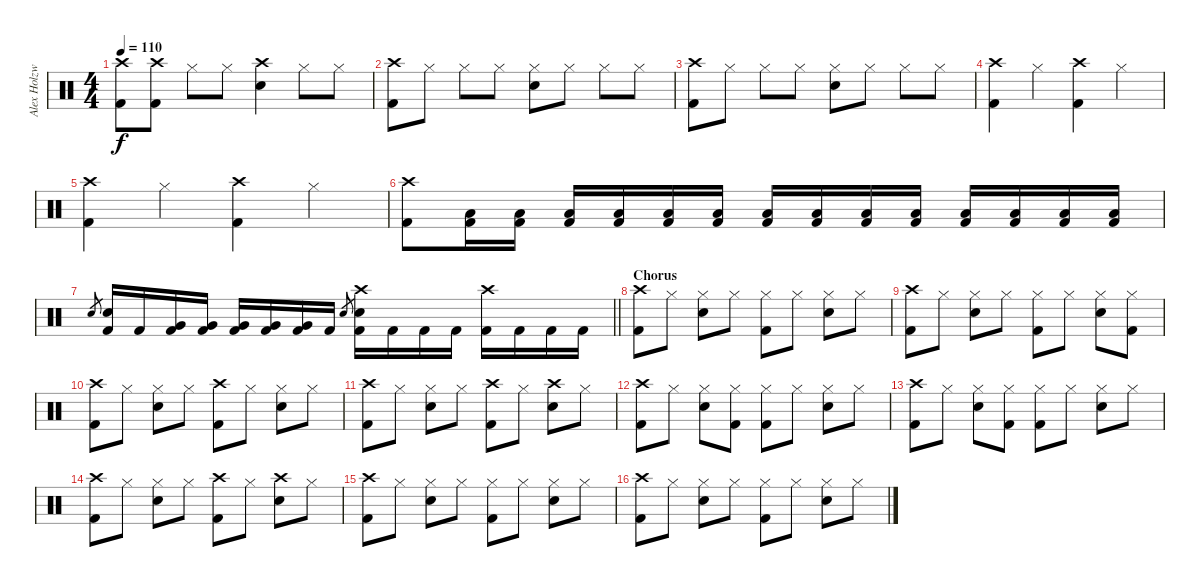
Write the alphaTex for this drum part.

\track ("Alex Holzwarth (Drums)" "Alex Holzw") {instrument percussion}
\staff {score}
\articulation defaults
\ts (4 4)
\tempo 110
\clef neutral
\ks c
("Crash high (hit)" "Kick (hit) 2").8{dy f} ("Crash high (hit)" "Kick (hit) 2").8 "Hi-Hat (closed)".8 "Hi-Hat (closed)".8 ("Crash high (hit)" "Electric Snare (hit)").4 "Hi-Hat (closed)".8 "Hi-Hat (closed)".8 |
("Crash high (hit)" "Kick (hit) 2").8 "Hi-Hat (closed)".8 "Hi-Hat (closed)".8 "Hi-Hat (closed)".8 ("Hi-Hat (closed)" "Electric Snare (hit)").8 "Hi-Hat (closed)".8 "Hi-Hat (closed)".8 "Hi-Hat (closed)".8 |
("Crash high (hit)" "Kick (hit) 2").8 "Hi-Hat (closed)".8 "Hi-Hat (closed)".8 "Hi-Hat (closed)".8 ("Hi-Hat (closed)" "Electric Snare (hit)").8 "Hi-Hat (closed)".8 "Hi-Hat (closed)".8 "Hi-Hat (closed)".8 |
("Crash high (hit)" "Kick (hit) 2").4 "Hi-Hat (closed)".4 ("Crash high (hit)" "Kick (hit) 2").4 "Hi-Hat (closed)".4 |
("Crash high (hit)" "Kick (hit) 2").4 "Hi-Hat (closed)".4 ("Crash high (hit)" "Kick (hit) 2").4 "Hi-Hat (closed)".4 |
("Crash high (hit)" "Kick (hit) 2").8 ("Low Tom (hit)" "Kick (hit) 2").16 ("Low Tom (hit)" "Kick (hit) 2").16 ("Low Tom (hit)" "Kick (hit) 2").16 ("Low Tom (hit)" "Kick (hit) 2").16 ("Low Tom (hit)" "Kick (hit) 2").16 ("Low Tom (hit)" "Kick (hit) 2").16 ("Low Tom (hit)" "Kick (hit) 2").16 ("Low Tom (hit)" "Kick (hit) 2").16 ("Low Tom (hit)" "Kick (hit) 2").16 ("Low Tom (hit)" "Kick (hit) 2").16 ("Low Tom (hit)" "Kick (hit) 2").16 ("Low Tom (hit)" "Kick (hit) 2").16 ("Low Tom (hit)" "Kick (hit) 2").16 ("Low Tom (hit)" "Kick (hit) 2").16 |
\barLineRight lightlight "Electric Snare (hit)".8{gr}
("Electric Snare (hit)" "Kick (hit) 2").16 "Kick (hit) 2".16 ("Very Low Tom (hit)" "Kick (hit) 2").16 ("Very Low Tom (hit)" "Kick (hit) 2").16 ("Very Low Tom (hit)" "Kick (hit) 2").16 ("Very Low Tom (hit)" "Kick (hit) 2").16 ("Very Low Tom (hit)" "Kick (hit) 2").16 "Kick (hit) 2".16 "Electric Snare (hit)".8{gr} ("Crash high (hit)" "Electric Snare (hit)" "Kick (hit) 2").16 "Kick (hit) 2".16 "Kick (hit) 2".16 "Kick (hit) 2".16 ("Crash high (hit)" "Kick (hit) 2").16 "Kick (hit) 2".16 "Kick (hit) 2".16 "Kick (hit) 2".16 |
\section ("" "Chorus")
("Crash high (hit)" "Kick (hit) 2").8 "Hi-Hat (closed)".8 ("Hi-Hat (closed)" "Electric Snare (hit)").8 "Hi-Hat (closed)".8 ("Hi-Hat (closed)" "Kick (hit) 2").8 "Hi-Hat (closed)".8 ("Hi-Hat (closed)" "Electric Snare (hit)").8 "Hi-Hat (closed)".8 |
("Crash high (hit)" "Kick (hit) 2").8 "Hi-Hat (closed)".8 ("Hi-Hat (closed)" "Electric Snare (hit)").8 "Hi-Hat (closed)".8 ("Hi-Hat (closed)" "Kick (hit) 2").8 "Hi-Hat (closed)".8 ("Hi-Hat (closed)" "Electric Snare (hit)").8 ("Hi-Hat (closed)" "Kick (hit) 2").8 |
("Crash high (hit)" "Kick (hit) 2").8 "Hi-Hat (closed)".8 ("Hi-Hat (closed)" "Electric Snare (hit)").8 "Hi-Hat (closed)".8 ("Crash high (hit)" "Kick (hit) 2").8 "Hi-Hat (closed)".8 ("Hi-Hat (closed)" "Electric Snare (hit)").8 "Hi-Hat (closed)".8 |
("Crash high (hit)" "Kick (hit) 2").8 "Hi-Hat (closed)".8 ("Hi-Hat (closed)" "Electric Snare (hit)").8 "Hi-Hat (closed)".8 ("Crash high (hit)" "Kick (hit) 2").8 "Hi-Hat (closed)".8 ("Crash high (hit)" "Electric Snare (hit)").8 "Hi-Hat (closed)".8 |
("Crash high (hit)" "Kick (hit) 2").8 "Hi-Hat (closed)".8 ("Hi-Hat (closed)" "Electric Snare (hit)").8 ("Hi-Hat (closed)" "Kick (hit) 2").8 ("Hi-Hat (closed)" "Kick (hit) 2").8 "Hi-Hat (closed)".8 ("Hi-Hat (closed)" "Electric Snare (hit)").8 "Hi-Hat (closed)".8 |
("Crash high (hit)" "Kick (hit) 2").8 "Hi-Hat (closed)".8 ("Hi-Hat (closed)" "Electric Snare (hit)").8 ("Hi-Hat (closed)" "Kick (hit) 2").8 ("Hi-Hat (closed)" "Kick (hit) 2").8 "Hi-Hat (closed)".8 ("Hi-Hat (closed)" "Electric Snare (hit)").8 "Hi-Hat (closed)".8 |
("Crash high (hit)" "Kick (hit) 2").8 "Hi-Hat (closed)".8 ("Hi-Hat (closed)" "Electric Snare (hit)").8 "Hi-Hat (closed)".8 ("Crash high (hit)" "Kick (hit) 2").8 "Hi-Hat (closed)".8 ("Crash high (hit)" "Electric Snare (hit)").8 "Hi-Hat (closed)".8 |
("Crash high (hit)" "Kick (hit) 2").8 "Hi-Hat (closed)".8 ("Hi-Hat (closed)" "Electric Snare (hit)").8 "Hi-Hat (closed)".8 ("Hi-Hat (closed)" "Kick (hit) 2").8 "Hi-Hat (closed)".8 ("Hi-Hat (closed)" "Electric Snare (hit)").8 "Hi-Hat (closed)".8 |
("Crash high (hit)" "Kick (hit) 2").8 "Hi-Hat (closed)".8 ("Hi-Hat (closed)" "Electric Snare (hit)").8 "Hi-Hat (closed)".8 ("Hi-Hat (closed)" "Kick (hit) 2").8 "Hi-Hat (closed)".8 ("Hi-Hat (closed)" "Electric Snare (hit)").8 "Hi-Hat (closed)".8
